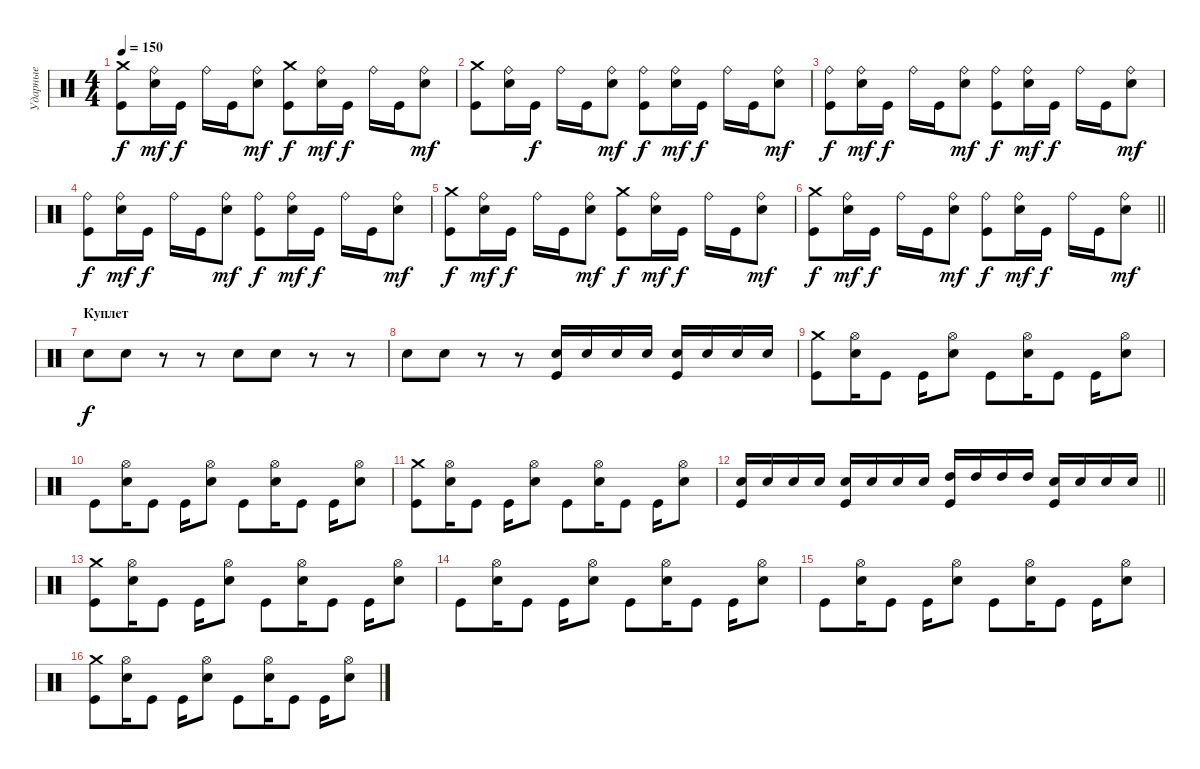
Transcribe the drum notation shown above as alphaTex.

\track ("Ударные" "Ударные") {instrument percussion}
\staff {score}
\articulation defaults
\ts (4 4)
\tempo 150
\clef neutral
\ks c
("Crash medium (hit)" "Kick (hit)").8{dy f} ("Ride (bell)" "Electric Snare (hit)").16{dy mf} "Kick (hit)".16{dy f} "Ride (bell)".16 "Kick (hit)".16 ("Ride (bell)" "Electric Snare (hit)").8{dy mf} ("Crash medium (hit)" "Kick (hit)").8{dy f} ("Ride (bell)" "Electric Snare (hit)").16{dy mf} "Kick (hit)".16{dy f} "Ride (bell)".16 "Kick (hit)".16 ("Ride (bell)" "Electric Snare (hit)").8{dy mf} |
("Crash medium (hit)" "Kick (hit)").8 ("Ride (bell)" "Electric Snare (hit)").16 "Kick (hit)".16{dy f} "Ride (bell)".16 "Kick (hit)".16 ("Ride (bell)" "Electric Snare (hit)").8{dy mf} ("Ride (bell)" "Kick (hit)").8{dy f} ("Ride (bell)" "Electric Snare (hit)").16{dy mf} "Kick (hit)".16{dy f} "Ride (bell)".16 "Kick (hit)".16 ("Ride (bell)" "Electric Snare (hit)").8{dy mf} |
("Ride (bell)" "Kick (hit)").8{dy f} ("Ride (bell)" "Electric Snare (hit)").16{dy mf} "Kick (hit)".16{dy f} "Ride (bell)".16 "Kick (hit)".16 ("Ride (bell)" "Electric Snare (hit)").8{dy mf} ("Ride (bell)" "Kick (hit)").8{dy f} ("Ride (bell)" "Electric Snare (hit)").16{dy mf} "Kick (hit)".16{dy f} "Ride (bell)".16 "Kick (hit)".16 ("Ride (bell)" "Electric Snare (hit)").8{dy mf} |
("Ride (bell)" "Kick (hit)").8{dy f} ("Ride (bell)" "Electric Snare (hit)").16{dy mf} "Kick (hit)".16{dy f} "Ride (bell)".16 "Kick (hit)".16 ("Ride (bell)" "Electric Snare (hit)").8{dy mf} ("Ride (bell)" "Kick (hit)").8{dy f} ("Ride (bell)" "Electric Snare (hit)").16{dy mf} "Kick (hit)".16{dy f} "Ride (bell)".16 "Kick (hit)".16 ("Ride (bell)" "Electric Snare (hit)").8{dy mf} |
("Crash medium (hit)" "Kick (hit)").8{dy f} ("Ride (bell)" "Electric Snare (hit)").16{dy mf} "Kick (hit)".16{dy f} "Ride (bell)".16 "Kick (hit)".16 ("Ride (bell)" "Electric Snare (hit)").8{dy mf} ("Crash medium (hit)" "Kick (hit)").8{dy f} ("Ride (bell)" "Electric Snare (hit)").16{dy mf} "Kick (hit)".16{dy f} "Ride (bell)".16 "Kick (hit)".16 ("Ride (bell)" "Electric Snare (hit)").8{dy mf} |
\barLineRight lightlight
("Crash medium (hit)" "Kick (hit)").8{dy f} ("Ride (bell)" "Electric Snare (hit)").16{dy mf} "Kick (hit)".16{dy f} "Ride (bell)".16 "Kick (hit)".16 ("Ride (bell)" "Electric Snare (hit)").8{dy mf} ("Ride (bell)" "Kick (hit)").8{dy f} ("Ride (bell)" "Electric Snare (hit)").16{dy mf} "Kick (hit)".16{dy f} "Ride (bell)".16 "Kick (hit)".16 ("Ride (bell)" "Electric Snare (hit)").8{dy mf} |
\section ("" "Куплет")
"Electric Snare (hit)".8{dy f} "Electric Snare (hit)".8 r.8 r.8 "Electric Snare (hit)".8 "Electric Snare (hit)".8 r.8 r.8 |
"Electric Snare (hit)".8 "Electric Snare (hit)".8 r.8 r.8 ("Electric Snare (hit)" "Kick (hit)").16 "Electric Snare (hit)".16 "Electric Snare (hit)".16 "Electric Snare (hit)".16 ("Electric Snare (hit)" "Kick (hit)").16 "Electric Snare (hit)".16 "Electric Snare (hit)".16 "Electric Snare (hit)".16 |
("Crash medium (hit)" "Kick (hit)").8 ("Hi-Hat (open)" "Electric Snare (hit)").16 "Kick (hit)".8 "Kick (hit)".16 ("Hi-Hat (open)" "Electric Snare (hit)").8 "Kick (hit)".8 ("Hi-Hat (open)" "Electric Snare (hit)").16 "Kick (hit)".8 "Kick (hit)".16 ("Hi-Hat (open)" "Electric Snare (hit)").8 |
"Kick (hit)".8 ("Hi-Hat (open)" "Electric Snare (hit)").16 "Kick (hit)".8 "Kick (hit)".16 ("Hi-Hat (open)" "Electric Snare (hit)").8 "Kick (hit)".8 ("Hi-Hat (open)" "Electric Snare (hit)").16 "Kick (hit)".8 "Kick (hit)".16 ("Hi-Hat (open)" "Electric Snare (hit)").8 |
("Crash medium (hit)" "Kick (hit)").8 ("Hi-Hat (open)" "Electric Snare (hit)").16 "Kick (hit)".8 "Kick (hit)".16 ("Hi-Hat (open)" "Electric Snare (hit)").8 "Kick (hit)".8 ("Hi-Hat (open)" "Electric Snare (hit)").16 "Kick (hit)".8 "Kick (hit)".16 ("Hi-Hat (open)" "Electric Snare (hit)").8 |
\barLineRight lightlight
("Electric Snare (hit)" "Kick (hit)").16 "Electric Snare (hit)".16 "Electric Snare (hit)".16 "Electric Snare (hit)".16 ("Electric Snare (hit)" "Kick (hit)").16 "Electric Snare (hit)".16 "Electric Snare (hit)".16 "Electric Snare (hit)".16 ("High Tom (hit)" "Kick (hit)").16 "High Tom (hit)".16 "High Tom (hit)".16 "High Tom (hit)".16 ("Electric Snare (hit)" "Kick (hit)").16 "Electric Snare (hit)".16 "Electric Snare (hit)".16 "Electric Snare (hit)".16 |
\section ("" " ")
("Crash medium (hit)" "Kick (hit)").8 ("Hi-Hat (open)" "Electric Snare (hit)").16 "Kick (hit)".8 "Kick (hit)".16 ("Hi-Hat (open)" "Electric Snare (hit)").8 "Kick (hit)".8 ("Hi-Hat (open)" "Electric Snare (hit)").16 "Kick (hit)".8 "Kick (hit)".16 ("Hi-Hat (open)" "Electric Snare (hit)").8 |
"Kick (hit)".8 ("Hi-Hat (open)" "Electric Snare (hit)").16 "Kick (hit)".8 "Kick (hit)".16 ("Hi-Hat (open)" "Electric Snare (hit)").8 "Kick (hit)".8 ("Hi-Hat (open)" "Electric Snare (hit)").16 "Kick (hit)".8 "Kick (hit)".16 ("Hi-Hat (open)" "Electric Snare (hit)").8 |
"Kick (hit)".8 ("Hi-Hat (open)" "Electric Snare (hit)").16 "Kick (hit)".8 "Kick (hit)".16 ("Hi-Hat (open)" "Electric Snare (hit)").8 "Kick (hit)".8 ("Hi-Hat (open)" "Electric Snare (hit)").16 "Kick (hit)".8 "Kick (hit)".16 ("Hi-Hat (open)" "Electric Snare (hit)").8 |
("Crash medium (hit)" "Kick (hit)").8 ("Hi-Hat (open)" "Electric Snare (hit)").16 "Kick (hit)".8 "Kick (hit)".16 ("Hi-Hat (open)" "Electric Snare (hit)").8 "Kick (hit)".8 ("Hi-Hat (open)" "Electric Snare (hit)").16 "Kick (hit)".8 "Kick (hit)".16 ("Hi-Hat (open)" "Electric Snare (hit)").8
